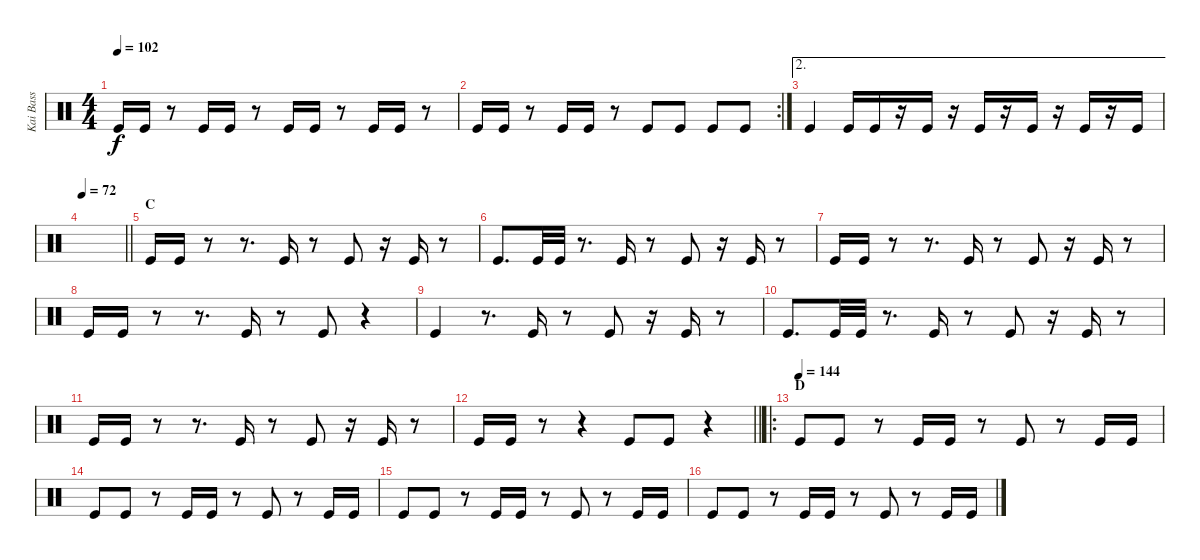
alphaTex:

\track ("Kai Bass" "Kai Bass") {instrument percussion}
\staff {score}
\articulation defaults
\ts (4 4)
\tempo 102
\clef neutral
\ks c "Kick (hit)".16{dy f} "Kick (hit)".16
r.8 "Kick (hit)".16 "Kick (hit)".16 r.8 "Kick (hit)".16 "Kick (hit)".16 r.8 "Kick (hit)".16 "Kick (hit)".16 r.8 |
\rc 2 "Kick (hit)".16 "Kick (hit)".16
r.8 "Kick (hit)".16 "Kick (hit)".16 r.8 "Kick (hit)".8 "Kick (hit)".8 "Kick (hit)".8 "Kick (hit)".8 |
\ae 2 "Kick (hit)".4 "Kick (hit)".16 "Kick (hit)".16
r.16 "Kick (hit)".16 r.16 "Kick (hit)".16 r.16 "Kick (hit)".16 r.16 "Kick (hit)".16 r.16 "Kick (hit)".16 |
\tempo 72
\barLineRight lightlight
|
\section ("" "C")
"Kick (hit)".16 "Kick (hit)".16 r.8 r.8{d} "Kick (hit)".16 r.8 "Kick (hit)".8 r.16 "Kick (hit)".16 r.8 |
"Kick (hit)".8{d} "Kick (hit)".32 "Kick (hit)".32 r.8{d} "Kick (hit)".16 r.8 "Kick (hit)".8 r.16 "Kick (hit)".16 r.8 |
"Kick (hit)".16 "Kick (hit)".16 r.8 r.8{d} "Kick (hit)".16 r.8 "Kick (hit)".8 r.16 "Kick (hit)".16 r.8 |
"Kick (hit)".16 "Kick (hit)".16 r.8 r.8{d} "Kick (hit)".16 r.8 "Kick (hit)".8 r.4 |
"Kick (hit)".4 r.8{d} "Kick (hit)".16 r.8 "Kick (hit)".8 r.16 "Kick (hit)".16 r.8 |
"Kick (hit)".8{d} "Kick (hit)".32 "Kick (hit)".32 r.8{d} "Kick (hit)".16 r.8 "Kick (hit)".8 r.16 "Kick (hit)".16 r.8 |
"Kick (hit)".16 "Kick (hit)".16 r.8 r.8{d} "Kick (hit)".16 r.8 "Kick (hit)".8 r.16 "Kick (hit)".16 r.8 |
\barLineRight lightlight "Kick (hit)".16 "Kick (hit)".16
r.8 r.4 "Kick (hit)".8 "Kick (hit)".8 r.4 |
\ro
\section ("" "D")
\tempo (144)
"Kick (hit)".8 "Kick (hit)".8 r.8 "Kick (hit)".16 "Kick (hit)".16 r.8 "Kick (hit)".8 r.8 "Kick (hit)".16 "Kick (hit)".16 |
"Kick (hit)".8 "Kick (hit)".8 r.8 "Kick (hit)".16 "Kick (hit)".16 r.8 "Kick (hit)".8 r.8 "Kick (hit)".16 "Kick (hit)".16 |
"Kick (hit)".8 "Kick (hit)".8 r.8 "Kick (hit)".16 "Kick (hit)".16 r.8 "Kick (hit)".8 r.8 "Kick (hit)".16 "Kick (hit)".16 |
"Kick (hit)".8 "Kick (hit)".8 r.8 "Kick (hit)".16 "Kick (hit)".16 r.8 "Kick (hit)".8 r.8 "Kick (hit)".16 "Kick (hit)".16
